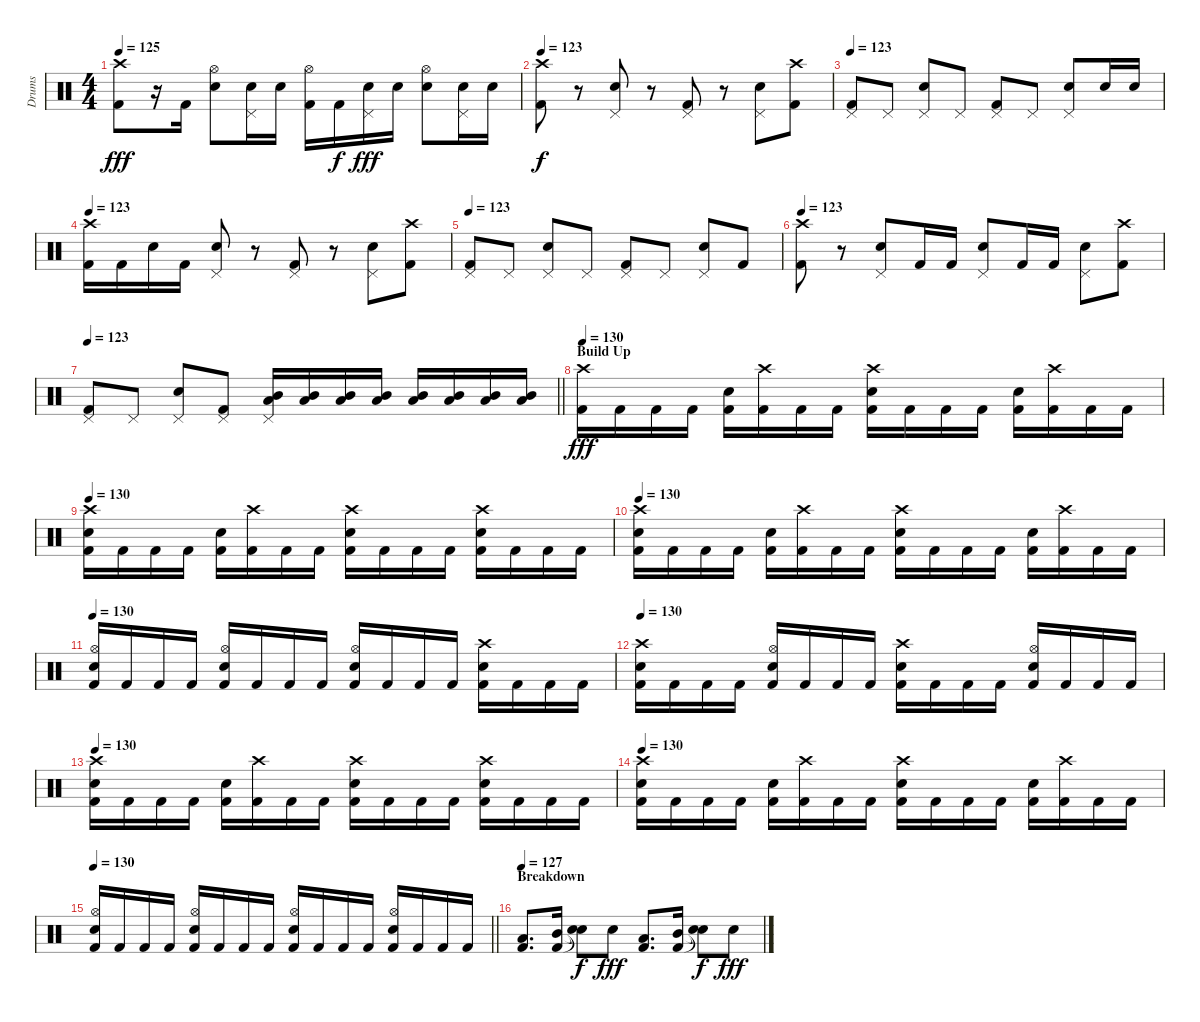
\track ("Drums" "Drums") {instrument percussion}
\staff {score}
\articulation defaults
\ts (4 4)
\tempo 125
\clef neutral
\ks c
("Crash high (hit)" "Kick (hit) 2").8{dy fff} r.16 "Kick (hit) 2".16 ("Hi-Hat (open)" "Snare (hit) 2").8 ("Pedal Hi-Hat (hit)" "Snare (hit) 2").16 "Snare (hit) 2".16 ("Hi-Hat (open)" "Kick (hit) 2").16 "Kick (hit) 2".16{dy f} ("Pedal Hi-Hat (hit)" "Snare (hit) 2").16{dy fff} "Snare (hit) 2".16 ("Hi-Hat (open)" "Snare (hit) 2").8 ("Pedal Hi-Hat (hit)" "Snare (hit) 2").16 "Snare (hit) 2".16 |
\tempo 123
("Crash high (hit)" "Kick (hit) 2").8{dy f} r.8 ("Pedal Hi-Hat (hit)" "Snare (hit) 2").8 r.8 ("Pedal Hi-Hat (hit)" "Kick (hit) 2").8 r.8 ("Pedal Hi-Hat (hit)" "Snare (hit) 2").8 ("Crash high (hit)" "Kick (hit) 2").8 |
\tempo 123
("Pedal Hi-Hat (hit)" "Kick (hit) 2").8 "Pedal Hi-Hat (hit)".8 ("Pedal Hi-Hat (hit)" "Snare (hit) 2").8 "Pedal Hi-Hat (hit)".8 ("Pedal Hi-Hat (hit)" "Kick (hit) 2").8 "Pedal Hi-Hat (hit)".8 ("Pedal Hi-Hat (hit)" "Snare (hit) 2").8 "Snare (hit) 2".16 "Snare (hit) 2".16 |
\tempo 123
("Crash high (hit)" "Kick (hit) 2").16 "Kick (hit) 2".16 "Snare (hit) 2".16 "Kick (hit) 2".16 ("Pedal Hi-Hat (hit)" "Snare (hit) 2").8 r.8 ("Pedal Hi-Hat (hit)" "Kick (hit) 2").8 r.8 ("Pedal Hi-Hat (hit)" "Snare (hit) 2").8 ("Crash high (hit)" "Kick (hit) 2").8 |
\tempo 123
("Pedal Hi-Hat (hit)" "Kick (hit) 2").8 "Pedal Hi-Hat (hit)".8 ("Pedal Hi-Hat (hit)" "Snare (hit) 2").8 "Pedal Hi-Hat (hit)".8 ("Pedal Hi-Hat (hit)" "Kick (hit) 2").8 "Pedal Hi-Hat (hit)".8 ("Pedal Hi-Hat (hit)" "Snare (hit) 2").8 "Kick (hit) 2".8 |
\tempo 123
("Crash high (hit)" "Kick (hit) 2").8 r.8 ("Pedal Hi-Hat (hit)" "Snare (hit) 2").8 "Kick (hit) 2".16 "Kick (hit) 2".16 ("Pedal Hi-Hat (hit)" "Snare (hit) 2").8 "Kick (hit) 2".16 "Kick (hit) 2".16 ("Pedal Hi-Hat (hit)" "Snare (hit) 2").8 ("Crash high (hit)" "Kick (hit) 2").8 |
\tempo 123
\barLineRight lightlight
("Pedal Hi-Hat (hit)" "Kick (hit) 2").8 "Pedal Hi-Hat (hit)".8 ("Pedal Hi-Hat (hit)" "Snare (hit) 2").8 ("Pedal Hi-Hat (hit)" "Kick (hit) 2").8 ("Pedal Hi-Hat (hit)" "Mid Tom (hit)" "Low Tom (hit)").16 ("Mid Tom (hit)" "Low Tom (hit)").16 ("Mid Tom (hit)" "Low Tom (hit)").16 ("Mid Tom (hit)" "Low Tom (hit)").16 ("Mid Tom (hit)" "Low Tom (hit)").16 ("Mid Tom (hit)" "Low Tom (hit)").16 ("Mid Tom (hit)" "Low Tom (hit)").16 ("Mid Tom (hit)" "Low Tom (hit)").16 |
\section ("" "Build Up")
\tempo 130
("Crash high (hit)" "Kick (hit) 2").16{dy fff} "Kick (hit) 2".16 "Kick (hit) 2".16 "Kick (hit) 2".16 ("Snare (hit) 2" "Kick (hit) 2").16 ("Crash high (hit)" "Kick (hit) 2").16 "Kick (hit) 2".16 "Kick (hit) 2".16 ("Crash high (hit)" "Snare (hit) 2" "Kick (hit) 2").16 "Kick (hit) 2".16 "Kick (hit) 2".16 "Kick (hit) 2".16 ("Snare (hit) 2" "Kick (hit) 2").16 ("Crash high (hit)" "Kick (hit) 2").16 "Kick (hit) 2".16 "Kick (hit) 2".16 |
\tempo 130
("Crash high (hit)" "Snare (hit) 2" "Kick (hit) 2").16 "Kick (hit) 2".16 "Kick (hit) 2".16 "Kick (hit) 2".16 ("Snare (hit) 2" "Kick (hit) 2").16 ("Crash high (hit)" "Kick (hit) 2").16 "Kick (hit) 2".16 "Kick (hit) 2".16 ("Crash high (hit)" "Snare (hit) 2" "Kick (hit) 2").16 "Kick (hit) 2".16 "Kick (hit) 2".16 "Kick (hit) 2".16 ("Crash high (hit)" "Snare (hit) 2" "Kick (hit) 2").16 "Kick (hit) 2".16 "Kick (hit) 2".16 "Kick (hit) 2".16 |
\tempo 130
("Crash high (hit)" "Snare (hit) 2" "Kick (hit) 2").16 "Kick (hit) 2".16 "Kick (hit) 2".16 "Kick (hit) 2".16 ("Snare (hit) 2" "Kick (hit) 2").16 ("Crash high (hit)" "Kick (hit) 2").16 "Kick (hit) 2".16 "Kick (hit) 2".16 ("Crash high (hit)" "Snare (hit) 2" "Kick (hit) 2").16 "Kick (hit) 2".16 "Kick (hit) 2".16 "Kick (hit) 2".16 ("Snare (hit) 2" "Kick (hit) 2").16 ("Crash high (hit)" "Kick (hit) 2").16 "Kick (hit) 2".16 "Kick (hit) 2".16 |
\tempo 130
("Hi-Hat (open)" "Snare (hit) 2" "Kick (hit) 2").16 "Kick (hit) 2".16 "Kick (hit) 2".16 "Kick (hit) 2".16 ("Hi-Hat (open)" "Snare (hit) 2" "Kick (hit) 2").16 "Kick (hit) 2".16 "Kick (hit) 2".16 "Kick (hit) 2".16 ("Hi-Hat (open)" "Snare (hit) 2" "Kick (hit) 2").16 "Kick (hit) 2".16 "Kick (hit) 2".16 "Kick (hit) 2".16 ("Crash high (hit)" "Snare (hit) 2" "Kick (hit) 2").16 "Kick (hit) 2".16 "Kick (hit) 2".16 "Kick (hit) 2".16 |
\tempo 130
("Crash high (hit)" "Snare (hit) 2" "Kick (hit) 2").16 "Kick (hit) 2".16 "Kick (hit) 2".16 "Kick (hit) 2".16 ("Hi-Hat (open)" "Snare (hit) 2" "Kick (hit) 2").16 "Kick (hit) 2".16 "Kick (hit) 2".16 "Kick (hit) 2".16 ("Crash high (hit)" "Snare (hit) 2" "Kick (hit) 2").16 "Kick (hit) 2".16 "Kick (hit) 2".16 "Kick (hit) 2".16 ("Hi-Hat (open)" "Snare (hit) 2" "Kick (hit) 2").16 "Kick (hit) 2".16 "Kick (hit) 2".16 "Kick (hit) 2".16 |
\tempo 130
("Crash high (hit)" "Snare (hit) 2" "Kick (hit) 2").16 "Kick (hit) 2".16 "Kick (hit) 2".16 "Kick (hit) 2".16 ("Snare (hit) 2" "Kick (hit) 2").16 ("Crash high (hit)" "Kick (hit) 2").16 "Kick (hit) 2".16 "Kick (hit) 2".16 ("Crash high (hit)" "Snare (hit) 2" "Kick (hit) 2").16 "Kick (hit) 2".16 "Kick (hit) 2".16 "Kick (hit) 2".16 ("Crash high (hit)" "Snare (hit) 2" "Kick (hit) 2").16 "Kick (hit) 2".16 "Kick (hit) 2".16 "Kick (hit) 2".16 |
\tempo 130
("Crash high (hit)" "Snare (hit) 2" "Kick (hit) 2").16 "Kick (hit) 2".16 "Kick (hit) 2".16 "Kick (hit) 2".16 ("Snare (hit) 2" "Kick (hit) 2").16 ("Crash high (hit)" "Kick (hit) 2").16 "Kick (hit) 2".16 "Kick (hit) 2".16 ("Crash high (hit)" "Snare (hit) 2" "Kick (hit) 2").16 "Kick (hit) 2".16 "Kick (hit) 2".16 "Kick (hit) 2".16 ("Snare (hit) 2" "Kick (hit) 2").16 ("Crash high (hit)" "Kick (hit) 2").16 "Kick (hit) 2".16 "Kick (hit) 2".16 |
\tempo 130
\barLineRight lightlight
("Hi-Hat (open)" "Snare (hit) 2" "Kick (hit) 2").16 "Kick (hit) 2".16 "Kick (hit) 2".16 "Kick (hit) 2".16 ("Hi-Hat (open)" "Snare (hit) 2" "Kick (hit) 2").16 "Kick (hit) 2".16 "Kick (hit) 2".16 "Kick (hit) 2".16 ("Hi-Hat (open)" "Snare (hit) 2" "Kick (hit) 2").16 "Kick (hit) 2".16 "Kick (hit) 2".16 "Kick (hit) 2".16 ("Hi-Hat (open)" "Snare (hit) 2" "Kick (hit) 2").16 "Kick (hit) 2".16 "Kick (hit) 2".16 "Kick (hit) 2".16 |
\section ("" "Breakdown")
\tempo 127
("Low Tom (hit)" "Kick (hit) 2").8{d} ("Mid Tom (hit)" "Kick (hit) 2").16 ("Snare (hit)"{t} "Snare (hit)"{t}).8{dy f} "Electric Snare (hit)".8{dy fff} ("Low Tom (hit)" "Kick (hit) 2").8{d} ("Mid Tom (hit)" "Kick (hit) 2").16 ("Snare (hit)"{t} "Snare (hit)"{t}).8{dy f} "Electric Snare (hit)".8{dy fff}
